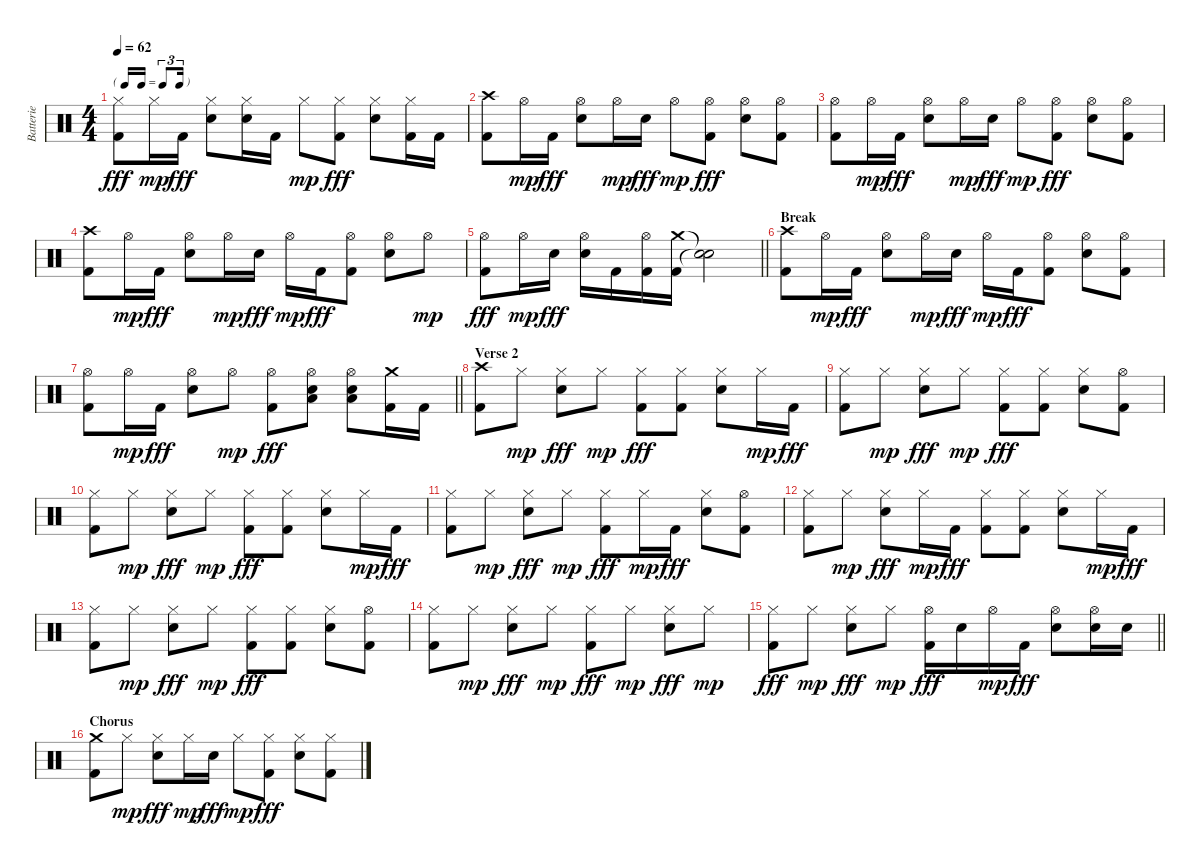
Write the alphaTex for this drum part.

\track ("Batterie" "Batterie") {instrument percussion}
\staff {score}
\articulation defaults
\ts (4 4)
\tf triplet16th
\tempo 62
\clef neutral
\ks c
("Hi-Hat (closed)" "Kick (hit) 2").8{dy fff} "Hi-Hat (closed)".16{dy mp} "Kick (hit) 2".16{dy fff} ("Hi-Hat (closed)" "Snare (hit) 2").8 ("Hi-Hat (closed)" "Snare (hit) 2").16 "Kick (hit) 2".16 "Hi-Hat (closed)".8{dy mp} ("Hi-Hat (closed)" "Kick (hit) 2").8{dy fff} ("Hi-Hat (closed)" "Snare (hit) 2").8 ("Hi-Hat (closed)" "Kick (hit) 2").16 "Kick (hit) 2".16 |
("Crash high (hit)" "Kick (hit) 2").8 "Hi-Hat (open)".16{dy mp} "Kick (hit) 2".16{dy fff} ("Hi-Hat (open)" "Snare (hit) 2").8 "Hi-Hat (open)".16{dy mp} "Snare (hit) 2".16{dy fff} "Hi-Hat (open)".8{dy mp} ("Hi-Hat (open)" "Kick (hit) 2").8{dy fff} ("Hi-Hat (open)" "Snare (hit) 2").8 ("Hi-Hat (open)" "Kick (hit) 2").8 |
("Hi-Hat (open)" "Kick (hit) 2").8 "Hi-Hat (open)".16{dy mp} "Kick (hit) 2".16{dy fff} ("Hi-Hat (open)" "Snare (hit) 2").8 "Hi-Hat (open)".16{dy mp} "Snare (hit) 2".16{dy fff} "Hi-Hat (open)".8{dy mp} ("Hi-Hat (open)" "Kick (hit) 2").8{dy fff} ("Hi-Hat (open)" "Snare (hit) 2").8 ("Hi-Hat (open)" "Kick (hit) 2").8 |
("Crash high (hit)" "Kick (hit) 2").8 "Hi-Hat (open)".16{dy mp} "Kick (hit) 2".16{dy fff} ("Hi-Hat (open)" "Snare (hit) 2").8 "Hi-Hat (open)".16{dy mp} "Snare (hit) 2".16{dy fff} "Hi-Hat (open)".16{dy mp} "Kick (hit) 2".16{dy fff} ("Hi-Hat (open)" "Kick (hit) 2").8 ("Hi-Hat (open)" "Snare (hit) 2").8 "Hi-Hat (open)".8{dy mp} |
\barLineRight lightlight
("Hi-Hat (open)" "Kick (hit) 2").8{dy fff} "Hi-Hat (open)".16{dy mp} "Snare (hit) 2".16{dy fff} ("Hi-Hat (open)" "Snare (hit) 2").16 "Kick (hit) 2".16 ("Hi-Hat (open)" "Kick (hit) 2").16 ("Crash medium (hit)" "Kick (hit) 2").16 ("Snare (hit)"{t} "Snare (hit)"{t}).2 |
\section ("" "Break")
("Crash high (hit)" "Kick (hit) 2").8 "Hi-Hat (open)".16{dy mp} "Kick (hit) 2".16{dy fff} ("Hi-Hat (open)" "Snare (hit) 2").8 "Hi-Hat (open)".16{dy mp} "Snare (hit) 2".16{dy fff} "Hi-Hat (open)".16{dy mp} "Kick (hit) 2".16{dy fff} ("Hi-Hat (open)" "Kick (hit) 2").8 ("Hi-Hat (open)" "Snare (hit) 2").8 ("Hi-Hat (open)" "Kick (hit) 2").8 |
\barLineRight lightlight
("Hi-Hat (open)" "Kick (hit) 2").8 "Hi-Hat (open)".16{dy mp} "Kick (hit) 2".16{dy fff} ("Hi-Hat (open)" "Snare (hit) 2").8 "Hi-Hat (open)".8{dy mp} ("Hi-Hat (open)" "Kick (hit) 2").8{dy fff} ("Hi-Hat (open)" "Low Tom (hit)" "Snare (hit) 2").8 ("Hi-Hat (open)" "Low Floor Tom (hit)" "Snare (hit) 2").8 ("Crash medium (hit)" "Kick (hit) 2").16 "Kick (hit) 2".16 |
\section ("" "Verse 2")
("Crash high (hit)" "Kick (hit) 2").8 "Hi-Hat (closed)".8{dy mp} ("Hi-Hat (closed)" "Snare (hit) 2").8{dy fff} "Hi-Hat (closed)".8{dy mp} ("Hi-Hat (closed)" "Kick (hit) 2").8{dy fff} ("Hi-Hat (closed)" "Kick (hit) 2").8 ("Hi-Hat (closed)" "Snare (hit) 2").8 "Hi-Hat (closed)".16{dy mp} "Kick (hit) 2".16{dy fff} |
("Hi-Hat (closed)" "Kick (hit) 2").8 "Hi-Hat (closed)".8{dy mp} ("Hi-Hat (closed)" "Snare (hit) 2").8{dy fff} "Hi-Hat (closed)".8{dy mp} ("Hi-Hat (closed)" "Kick (hit) 2").8{dy fff} ("Hi-Hat (closed)" "Kick (hit) 2").8 ("Hi-Hat (closed)" "Snare (hit) 2").8 ("Hi-Hat (open)" "Kick (hit) 2").8 |
("Hi-Hat (closed)" "Kick (hit) 2").8 "Hi-Hat (closed)".8{dy mp} ("Hi-Hat (closed)" "Snare (hit) 2").8{dy fff} "Hi-Hat (closed)".8{dy mp} ("Hi-Hat (closed)" "Kick (hit) 2").8{dy fff} ("Hi-Hat (closed)" "Kick (hit) 2").8 ("Hi-Hat (closed)" "Snare (hit) 2").8 "Hi-Hat (closed)".16{dy mp} "Kick (hit) 2".16{dy fff} |
("Hi-Hat (closed)" "Kick (hit) 2").8 "Hi-Hat (closed)".8{dy mp} ("Hi-Hat (closed)" "Snare (hit) 2").8{dy fff} "Hi-Hat (closed)".8{dy mp} ("Hi-Hat (closed)" "Kick (hit) 2").8{dy fff} "Hi-Hat (closed)".16{dy mp} "Kick (hit) 2".16{dy fff} ("Hi-Hat (closed)" "Snare (hit) 2").8 ("Hi-Hat (open)" "Kick (hit) 2").8 |
("Hi-Hat (closed)" "Kick (hit) 2").8 "Hi-Hat (closed)".8{dy mp} ("Hi-Hat (closed)" "Snare (hit) 2").8{dy fff} "Hi-Hat (closed)".16{dy mp} "Kick (hit) 2".16{dy fff} ("Hi-Hat (closed)" "Kick (hit) 2").8 ("Hi-Hat (closed)" "Kick (hit) 2").8 ("Hi-Hat (closed)" "Snare (hit) 2").8 "Hi-Hat (closed)".16{dy mp} "Kick (hit) 2".16{dy fff} |
("Hi-Hat (closed)" "Kick (hit) 2").8 "Hi-Hat (closed)".8{dy mp} ("Hi-Hat (closed)" "Snare (hit) 2").8{dy fff} "Hi-Hat (closed)".8{dy mp} ("Hi-Hat (closed)" "Kick (hit) 2").8{dy fff} ("Hi-Hat (closed)" "Kick (hit) 2").8 ("Hi-Hat (closed)" "Snare (hit) 2").8 ("Hi-Hat (open)" "Kick (hit) 2").8 |
("Hi-Hat (closed)" "Kick (hit) 2").8 "Hi-Hat (closed)".8{dy mp} ("Hi-Hat (closed)" "Snare (hit) 2").8{dy fff} "Hi-Hat (closed)".8{dy mp} ("Hi-Hat (closed)" "Kick (hit) 2").8{dy fff} "Hi-Hat (closed)".8{dy mp} ("Hi-Hat (closed)" "Snare (hit) 2").8{dy fff} "Hi-Hat (closed)".8{dy mp} |
\barLineRight lightlight
("Hi-Hat (closed)" "Kick (hit) 2").8{dy fff} "Hi-Hat (closed)".8{dy mp} ("Hi-Hat (closed)" "Snare (hit) 2").8{dy fff} "Hi-Hat (closed)".8{dy mp} ("Hi-Hat (open)" "Kick (hit) 2").16{dy fff} "Snare (hit) 2".16 "Hi-Hat (open)".16{dy mp} "Kick (hit) 2".16{dy fff} ("Hi-Hat (open)" "Snare (hit) 2").8 ("Hi-Hat (open)" "Snare (hit) 2").16 "Snare (hit) 2".16 |
\section ("" "Chorus")
("Crash medium (hit)" "Kick (hit) 2").8 "Hi-Hat (closed)".8{dy mp} ("Hi-Hat (closed)" "Snare (hit) 2").8{dy fff} "Hi-Hat (closed)".16{dy mp} "Snare (hit) 2".16{dy fff} "Hi-Hat (closed)".8{dy mp} ("Hi-Hat (closed)" "Kick (hit) 2").8{dy fff} ("Hi-Hat (closed)" "Snare (hit) 2").8 ("Hi-Hat (closed)" "Kick (hit) 2").8
